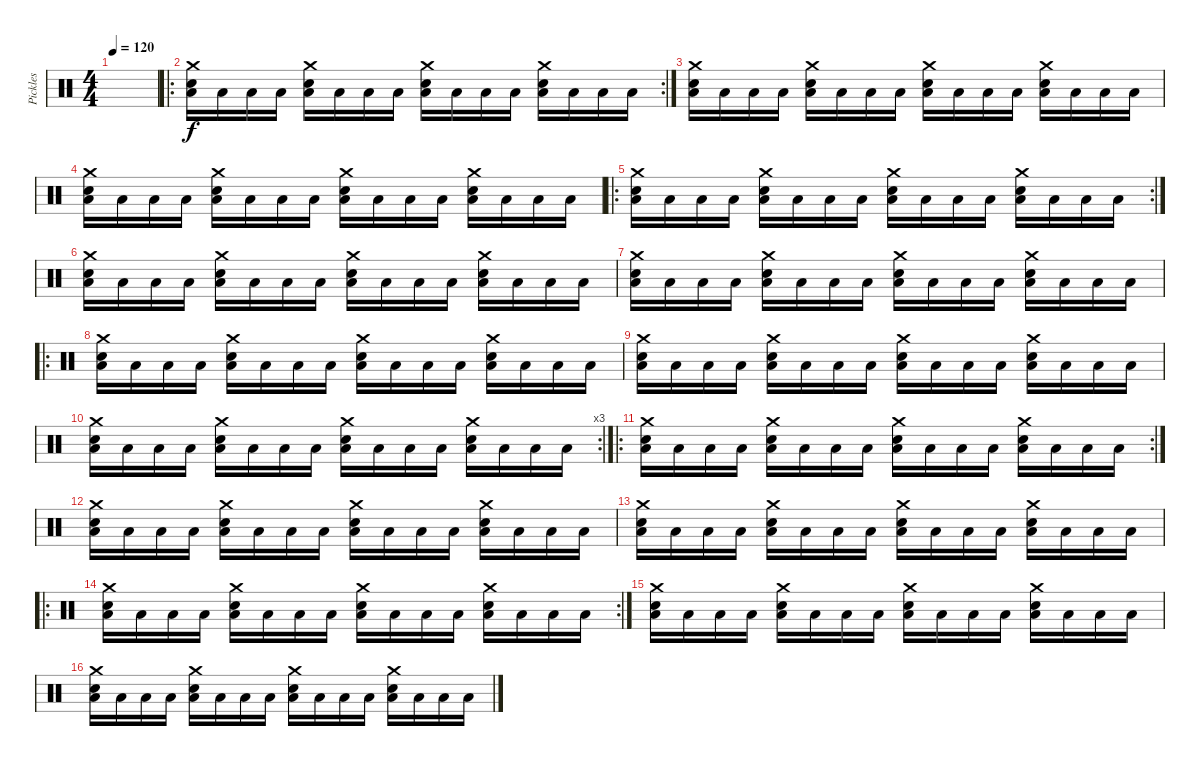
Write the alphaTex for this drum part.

\track ("Pickles" "Pickles") {instrument percussion}
\staff {score}
\articulation defaults
\ts (4 4)
\tempo 120
\clef neutral
\ks c
|
\ro
\rc 2
("Crash medium (hit)" "Snare (hit) 2" "Low Tom (hit)").16 "Low Tom (hit)".16 "Low Tom (hit)".16 "Low Tom (hit)".16 ("Crash medium (hit)" "Snare (hit) 2" "Low Tom (hit)").16 "Low Tom (hit)".16 "Low Tom (hit)".16 "Low Tom (hit)".16 ("Crash medium (hit)" "Snare (hit) 2" "Low Tom (hit)").16 "Low Tom (hit)".16 "Low Tom (hit)".16 "Low Tom (hit)".16 ("Crash medium (hit)" "Snare (hit) 2" "Low Tom (hit)").16 "Low Tom (hit)".16 "Low Tom (hit)".16 "Low Tom (hit)".16 |
("Crash medium (hit)" "Snare (hit) 2" "Low Tom (hit)").16 "Low Tom (hit)".16 "Low Tom (hit)".16 "Low Tom (hit)".16 ("Crash medium (hit)" "Snare (hit) 2" "Low Tom (hit)").16 "Low Tom (hit)".16 "Low Tom (hit)".16 "Low Tom (hit)".16 ("Crash medium (hit)" "Snare (hit) 2" "Low Tom (hit)").16 "Low Tom (hit)".16 "Low Tom (hit)".16 "Low Tom (hit)".16 ("Crash medium (hit)" "Snare (hit) 2" "Low Tom (hit)").16 "Low Tom (hit)".16 "Low Tom (hit)".16 "Low Tom (hit)".16 |
("Crash medium (hit)" "Snare (hit) 2" "Low Tom (hit)").16 "Low Tom (hit)".16 "Low Tom (hit)".16 "Low Tom (hit)".16 ("Crash medium (hit)" "Snare (hit) 2" "Low Tom (hit)").16 "Low Tom (hit)".16 "Low Tom (hit)".16 "Low Tom (hit)".16 ("Crash medium (hit)" "Snare (hit) 2" "Low Tom (hit)").16 "Low Tom (hit)".16 "Low Tom (hit)".16 "Low Tom (hit)".16 ("Crash medium (hit)" "Snare (hit) 2" "Low Tom (hit)").16 "Low Tom (hit)".16 "Low Tom (hit)".16 "Low Tom (hit)".16 |
\ro
\rc 2
("Crash medium (hit)" "Snare (hit) 2" "Low Tom (hit)").16 "Low Tom (hit)".16 "Low Tom (hit)".16 "Low Tom (hit)".16 ("Crash medium (hit)" "Snare (hit) 2" "Low Tom (hit)").16 "Low Tom (hit)".16 "Low Tom (hit)".16 "Low Tom (hit)".16 ("Crash medium (hit)" "Snare (hit) 2" "Low Tom (hit)").16 "Low Tom (hit)".16 "Low Tom (hit)".16 "Low Tom (hit)".16 ("Crash medium (hit)" "Snare (hit) 2" "Low Tom (hit)").16 "Low Tom (hit)".16 "Low Tom (hit)".16 "Low Tom (hit)".16 |
("Crash medium (hit)" "Snare (hit) 2" "Low Tom (hit)").16 "Low Tom (hit)".16 "Low Tom (hit)".16 "Low Tom (hit)".16 ("Crash medium (hit)" "Snare (hit) 2" "Low Tom (hit)").16 "Low Tom (hit)".16 "Low Tom (hit)".16 "Low Tom (hit)".16 ("Crash medium (hit)" "Snare (hit) 2" "Low Tom (hit)").16 "Low Tom (hit)".16 "Low Tom (hit)".16 "Low Tom (hit)".16 ("Crash medium (hit)" "Snare (hit) 2" "Low Tom (hit)").16 "Low Tom (hit)".16 "Low Tom (hit)".16 "Low Tom (hit)".16 |
("Crash medium (hit)" "Snare (hit) 2" "Low Tom (hit)").16 "Low Tom (hit)".16 "Low Tom (hit)".16 "Low Tom (hit)".16 ("Crash medium (hit)" "Snare (hit) 2" "Low Tom (hit)").16 "Low Tom (hit)".16 "Low Tom (hit)".16 "Low Tom (hit)".16 ("Crash medium (hit)" "Snare (hit) 2" "Low Tom (hit)").16 "Low Tom (hit)".16 "Low Tom (hit)".16 "Low Tom (hit)".16 ("Crash medium (hit)" "Snare (hit) 2" "Low Tom (hit)").16 "Low Tom (hit)".16 "Low Tom (hit)".16 "Low Tom (hit)".16 |
\ro
("Crash medium (hit)" "Snare (hit) 2" "Low Tom (hit)").16 "Low Tom (hit)".16 "Low Tom (hit)".16 "Low Tom (hit)".16 ("Crash medium (hit)" "Snare (hit) 2" "Low Tom (hit)").16 "Low Tom (hit)".16 "Low Tom (hit)".16 "Low Tom (hit)".16 ("Crash medium (hit)" "Snare (hit) 2" "Low Tom (hit)").16 "Low Tom (hit)".16 "Low Tom (hit)".16 "Low Tom (hit)".16 ("Crash medium (hit)" "Snare (hit) 2" "Low Tom (hit)").16 "Low Tom (hit)".16 "Low Tom (hit)".16 "Low Tom (hit)".16 |
("Crash medium (hit)" "Snare (hit) 2" "Low Tom (hit)").16 "Low Tom (hit)".16 "Low Tom (hit)".16 "Low Tom (hit)".16 ("Crash medium (hit)" "Snare (hit) 2" "Low Tom (hit)").16 "Low Tom (hit)".16 "Low Tom (hit)".16 "Low Tom (hit)".16 ("Crash medium (hit)" "Snare (hit) 2" "Low Tom (hit)").16 "Low Tom (hit)".16 "Low Tom (hit)".16 "Low Tom (hit)".16 ("Crash medium (hit)" "Snare (hit) 2" "Low Tom (hit)").16 "Low Tom (hit)".16 "Low Tom (hit)".16 "Low Tom (hit)".16 |
\rc 3
("Crash medium (hit)" "Snare (hit) 2" "Low Tom (hit)").16 "Low Tom (hit)".16 "Low Tom (hit)".16 "Low Tom (hit)".16 ("Crash medium (hit)" "Snare (hit) 2" "Low Tom (hit)").16 "Low Tom (hit)".16 "Low Tom (hit)".16 "Low Tom (hit)".16 ("Crash medium (hit)" "Snare (hit) 2" "Low Tom (hit)").16 "Low Tom (hit)".16 "Low Tom (hit)".16 "Low Tom (hit)".16 ("Crash medium (hit)" "Snare (hit) 2" "Low Tom (hit)").16 "Low Tom (hit)".16 "Low Tom (hit)".16 "Low Tom (hit)".16 |
\ro
\rc 2
("Crash medium (hit)" "Snare (hit) 2" "Low Tom (hit)").16 "Low Tom (hit)".16 "Low Tom (hit)".16 "Low Tom (hit)".16 ("Crash medium (hit)" "Snare (hit) 2" "Low Tom (hit)").16 "Low Tom (hit)".16 "Low Tom (hit)".16 "Low Tom (hit)".16 ("Crash medium (hit)" "Snare (hit) 2" "Low Tom (hit)").16 "Low Tom (hit)".16 "Low Tom (hit)".16 "Low Tom (hit)".16 ("Crash medium (hit)" "Snare (hit) 2" "Low Tom (hit)").16 "Low Tom (hit)".16 "Low Tom (hit)".16 "Low Tom (hit)".16 |
("Crash medium (hit)" "Snare (hit) 2" "Low Tom (hit)").16 "Low Tom (hit)".16 "Low Tom (hit)".16 "Low Tom (hit)".16 ("Crash medium (hit)" "Snare (hit) 2" "Low Tom (hit)").16 "Low Tom (hit)".16 "Low Tom (hit)".16 "Low Tom (hit)".16 ("Crash medium (hit)" "Snare (hit) 2" "Low Tom (hit)").16 "Low Tom (hit)".16 "Low Tom (hit)".16 "Low Tom (hit)".16 ("Crash medium (hit)" "Snare (hit) 2" "Low Tom (hit)").16 "Low Tom (hit)".16 "Low Tom (hit)".16 "Low Tom (hit)".16 |
("Crash medium (hit)" "Snare (hit) 2" "Low Tom (hit)").16 "Low Tom (hit)".16 "Low Tom (hit)".16 "Low Tom (hit)".16 ("Crash medium (hit)" "Snare (hit) 2" "Low Tom (hit)").16 "Low Tom (hit)".16 "Low Tom (hit)".16 "Low Tom (hit)".16 ("Crash medium (hit)" "Snare (hit) 2" "Low Tom (hit)").16 "Low Tom (hit)".16 "Low Tom (hit)".16 "Low Tom (hit)".16 ("Crash medium (hit)" "Snare (hit) 2" "Low Tom (hit)").16 "Low Tom (hit)".16 "Low Tom (hit)".16 "Low Tom (hit)".16 |
\ro
\rc 2
("Crash medium (hit)" "Snare (hit) 2" "Low Tom (hit)").16 "Low Tom (hit)".16 "Low Tom (hit)".16 "Low Tom (hit)".16 ("Crash medium (hit)" "Snare (hit) 2" "Low Tom (hit)").16 "Low Tom (hit)".16 "Low Tom (hit)".16 "Low Tom (hit)".16 ("Crash medium (hit)" "Snare (hit) 2" "Low Tom (hit)").16 "Low Tom (hit)".16 "Low Tom (hit)".16 "Low Tom (hit)".16 ("Crash medium (hit)" "Snare (hit) 2" "Low Tom (hit)").16 "Low Tom (hit)".16 "Low Tom (hit)".16 "Low Tom (hit)".16 |
("Crash medium (hit)" "Snare (hit) 2" "Low Tom (hit)").16 "Low Tom (hit)".16 "Low Tom (hit)".16 "Low Tom (hit)".16 ("Crash medium (hit)" "Snare (hit) 2" "Low Tom (hit)").16 "Low Tom (hit)".16 "Low Tom (hit)".16 "Low Tom (hit)".16 ("Crash medium (hit)" "Snare (hit) 2" "Low Tom (hit)").16 "Low Tom (hit)".16 "Low Tom (hit)".16 "Low Tom (hit)".16 ("Crash medium (hit)" "Snare (hit) 2" "Low Tom (hit)").16 "Low Tom (hit)".16 "Low Tom (hit)".16 "Low Tom (hit)".16 |
("Crash medium (hit)" "Snare (hit) 2" "Low Tom (hit)").16 "Low Tom (hit)".16 "Low Tom (hit)".16 "Low Tom (hit)".16 ("Crash medium (hit)" "Snare (hit) 2" "Low Tom (hit)").16 "Low Tom (hit)".16 "Low Tom (hit)".16 "Low Tom (hit)".16 ("Crash medium (hit)" "Snare (hit) 2" "Low Tom (hit)").16 "Low Tom (hit)".16 "Low Tom (hit)".16 "Low Tom (hit)".16 ("Crash medium (hit)" "Snare (hit) 2" "Low Tom (hit)").16 "Low Tom (hit)".16 "Low Tom (hit)".16 "Low Tom (hit)".16
